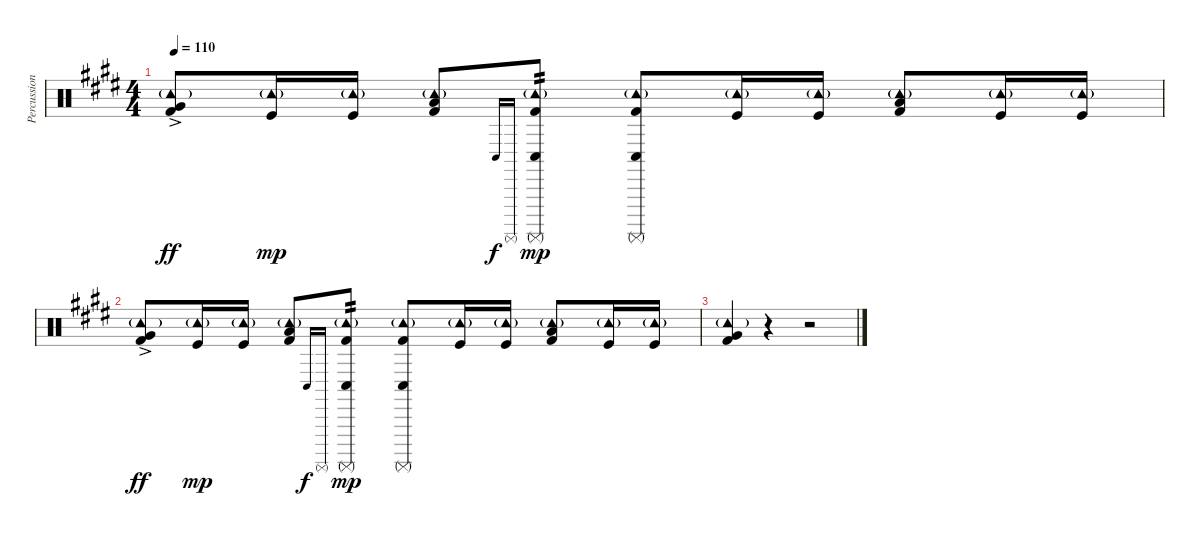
\track ("Percussion" "Percussion") {instrument percussion}
\staff {score}
\articulation defaults
\ts (4 4)
\tempo 110
\clef neutral
\ks e
("Tambourine (hit)"{g} "Very Low Tom (hit)"{ac} "Kick (hit) 2").8{dy ff} ("Tambourine (hit)"{g} "Kick (hit)").16{dy mp} ("Tambourine (hit)"{g} "Kick (hit)").16 ("Tambourine (hit)"{g} "Low Floor Tom (hit)" "Kick (hit) 2").8 "Conga low (hit)".16{gr onbeat dy f} "Surdo (mute)".16{gr onbeat} ("Tambourine (hit)"{g} "Conga low (hit)" "Surdo (mute)" "Kick (hit) 2").8{tp 2 dy mp} ("Tambourine (hit)"{g} "Conga low (hit)" "Surdo (mute)" "Kick (hit) 2").8 ("Tambourine (hit)"{g} "Kick (hit)").16 ("Tambourine (hit)"{g} "Kick (hit)").16 ("Tambourine (hit)"{g} "Low Floor Tom (hit)" "Kick (hit) 2").8 ("Tambourine (hit)"{g} "Kick (hit)").16 ("Tambourine (hit)"{g} "Kick (hit)").16 |
("Tambourine (hit)"{g} "Very Low Tom (hit)"{ac} "Kick (hit) 2").8{dy ff} ("Tambourine (hit)"{g} "Kick (hit)").16{dy mp} ("Tambourine (hit)"{g} "Kick (hit)").16 ("Tambourine (hit)"{g} "Low Floor Tom (hit)" "Kick (hit) 2").8 "Conga low (hit)".16{gr onbeat dy f} "Surdo (mute)".16{gr onbeat} ("Tambourine (hit)"{g} "Conga low (hit)" "Surdo (mute)" "Kick (hit) 2").8{tp 2 dy mp} ("Tambourine (hit)"{g} "Conga low (hit)" "Surdo (mute)" "Kick (hit) 2").8 ("Tambourine (hit)"{g} "Kick (hit)").16 ("Tambourine (hit)"{g} "Kick (hit)").16 ("Tambourine (hit)"{g} "Low Floor Tom (hit)" "Kick (hit) 2").8 ("Tambourine (hit)"{g} "Kick (hit)").16 ("Tambourine (hit)"{g} "Kick (hit)").16 |
("Tambourine (hit)"{g} "Very Low Tom (hit)" "Kick (hit) 2").4 r.4 r.2
